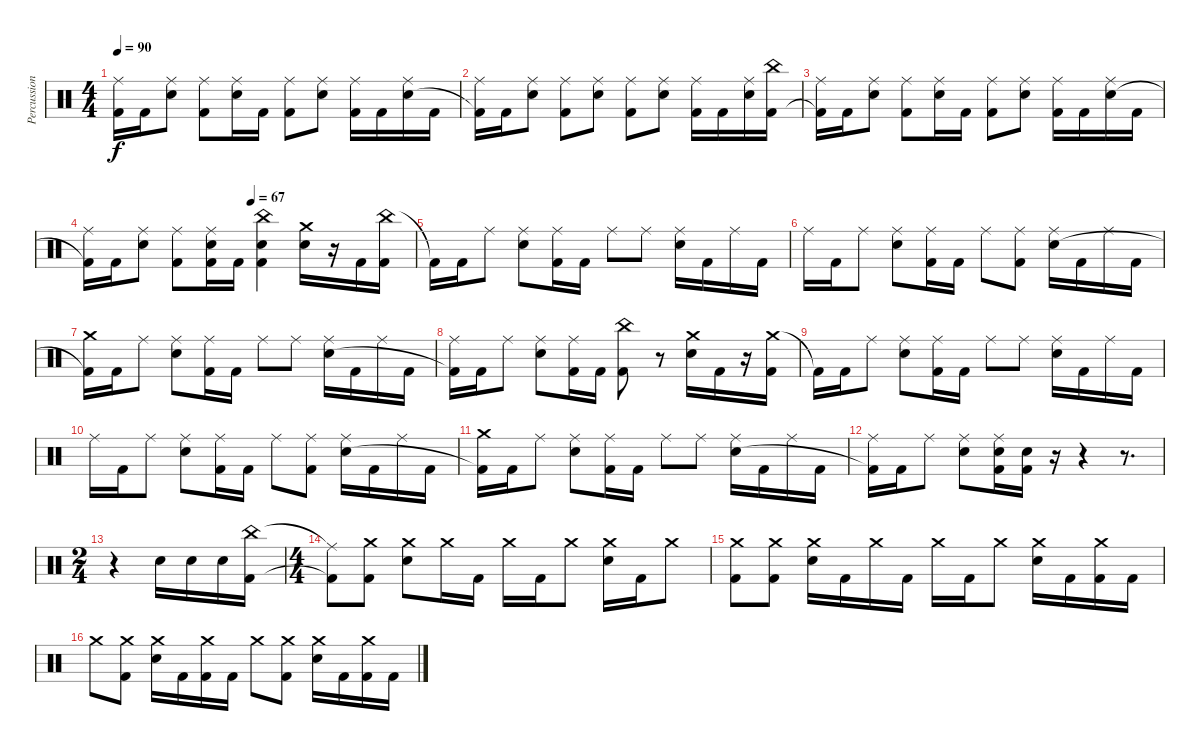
\track ("Percussion" "Percussion") {instrument percussion}
\staff {score}
\articulation defaults
\ts (4 4)
\tempo 90
\clef neutral
\ks c
("Ride (middle)" "Kick (hit) 2"{t}).16{dy f} "Kick (hit) 2".16 ("Ride (middle)" "Electric Snare (hit)").8 ("Ride (middle)" "Kick (hit) 2").8 ("Ride (middle)" "Electric Snare (hit)").16 "Kick (hit) 2".16 ("Ride (middle)" "Kick (hit) 2").8 ("Ride (middle)" "Electric Snare (hit)").8 ("Ride (middle)" "Kick (hit) 2").16 "Kick (hit) 2".16 ("Ride (middle)" "Electric Snare (hit)").16 "Kick (hit) 2".16 |
("Ride (middle)" "Kick (hit) 2"{t}).16 "Kick (hit) 2".16 ("Ride (middle)" "Electric Snare (hit)").8 ("Ride (middle)" "Kick (hit) 2").8 ("Ride (middle)" "Electric Snare (hit)").8 ("Ride (middle)" "Kick (hit) 2").8 ("Ride (middle)" "Electric Snare (hit)").8 ("Ride (middle)" "Kick (hit) 2").16 "Kick (hit) 2".16 ("Ride (middle)" "Electric Snare (hit)").16 ("China (hit)" "Kick (hit) 2").16 |
("Ride (middle)" "Kick (hit) 2"{t}).16 "Kick (hit) 2".16 ("Ride (middle)" "Electric Snare (hit)").8 ("Ride (middle)" "Kick (hit) 2").8 ("Ride (middle)" "Electric Snare (hit)").16 "Kick (hit) 2".16 ("Ride (middle)" "Kick (hit) 2").8 ("Ride (middle)" "Electric Snare (hit)").8 ("Ride (middle)" "Kick (hit) 2").16 "Kick (hit) 2".16 ("Ride (middle)" "Electric Snare (hit)").16 "Kick (hit) 2".16 |
\tempo (67 0.5)
("Ride (middle)" "Kick (hit) 2"{t}).16 "Kick (hit) 2".16 ("Ride (middle)" "Electric Snare (hit)").8 ("Ride (middle)" "Kick (hit) 2").8 ("Ride (middle)" "Electric Snare (hit)" "Kick (hit) 2").16 "Kick (hit) 2".16 ("China (hit)" "Electric Snare (hit)" "Kick (hit) 2").4 ("Crash medium (hit)" "Electric Snare (hit)").16 r.16 "Kick (hit) 2".16 ("China (hit)" "Kick (hit) 2").16 |
"Kick (hit) 2"{t}.16 "Kick (hit) 2".16 "Ride (middle)".8 ("Ride (middle)" "Electric Snare (hit)").8 ("Ride (middle)" "Kick (hit) 2").16 "Kick (hit) 2".16 "Ride (middle)".8 "Ride (middle)".8 ("Ride (middle)" "Electric Snare (hit)").16 "Kick (hit) 2".16 "Ride (middle)".16 "Kick (hit) 2".16 |
"Ride (middle)".16 "Kick (hit) 2".16 "Ride (middle)".8 ("Ride (middle)" "Electric Snare (hit)").8 ("Ride (middle)" "Kick (hit) 2").16 "Kick (hit) 2".16 "Ride (middle)".8 ("Ride (middle)" "Kick (hit) 2").8 ("Ride (middle)" "Electric Snare (hit)").16 "Kick (hit) 2".16 "Ride (middle)".16 "Kick (hit) 2".16 |
("Crash medium (hit)" "Kick (hit) 2"{t}).16 "Kick (hit) 2".16 "Ride (middle)".8 ("Ride (middle)" "Electric Snare (hit)").8 ("Ride (middle)" "Kick (hit) 2").16 "Kick (hit) 2".16 "Ride (middle)".8 "Ride (middle)".8 ("Ride (middle)" "Electric Snare (hit)").16 "Kick (hit) 2".16 "Ride (middle)".16 "Kick (hit) 2".16 |
("Ride (middle)" "Kick (hit) 2"{t}).16 "Kick (hit) 2".16 "Ride (middle)".8 ("Ride (middle)" "Electric Snare (hit)").8 ("Ride (middle)" "Kick (hit) 2").16 "Kick (hit) 2".16 ("China (hit)" "Kick (hit) 2").8 r.8 ("Crash medium (hit)" "Electric Snare (hit)").16 "Kick (hit) 2".16 r.16 ("Crash medium (hit)" "Kick (hit) 2").16 |
"Kick (hit) 2"{t}.16 "Kick (hit) 2".16 "Ride (middle)".8 ("Ride (middle)" "Electric Snare (hit)").8 ("Ride (middle)" "Kick (hit) 2").16 "Kick (hit) 2".16 "Ride (middle)".8 "Ride (middle)".8 ("Ride (middle)" "Electric Snare (hit)").16 "Kick (hit) 2".16 "Ride (middle)".16 "Kick (hit) 2".16 |
"Ride (middle)".16 "Kick (hit) 2".16 "Ride (middle)".8 ("Ride (middle)" "Electric Snare (hit)").8 ("Ride (middle)" "Kick (hit) 2").16 "Kick (hit) 2".16 "Ride (middle)".8 ("Ride (middle)" "Kick (hit) 2").8 ("Ride (middle)" "Electric Snare (hit)").16 "Kick (hit) 2".16 "Ride (middle)".16 "Kick (hit) 2".16 |
("Crash medium (hit)" "Kick (hit) 2"{t}).16 "Kick (hit) 2".16 "Ride (middle)".8 ("Ride (middle)" "Electric Snare (hit)").8 ("Ride (middle)" "Kick (hit) 2").16 "Kick (hit) 2".16 "Ride (middle)".8 "Ride (middle)".8 ("Ride (middle)" "Electric Snare (hit)").16 "Kick (hit) 2".16 "Ride (middle)".16 "Kick (hit) 2".16 |
("Ride (middle)" "Kick (hit) 2"{t}).16 "Kick (hit) 2".16 "Ride (middle)".8 ("Ride (middle)" "Electric Snare (hit)").8 ("Ride (middle)" "Electric Snare (hit)" "Kick (hit) 2").16 ("Electric Snare (hit)" "Kick (hit) 2").16 r.16 r.4 r.8{d} |
\ts (2 4)
r.4 "Electric Snare (hit)".16 "Electric Snare (hit)".16 "Electric Snare (hit)".16 ("China (hit)" "Kick (hit) 2").16 |
\ts (4 4)
("Ride (middle)"{t} "Kick (hit) 2"{t}).8 ("Crash medium (hit)" "Kick (hit) 2").8 ("Crash medium (hit)" "Electric Snare (hit)").8 "Crash medium (hit)".16 "Kick (hit) 2".16 "Crash medium (hit)".16 "Kick (hit) 2".16 "Crash medium (hit)".8 ("Crash medium (hit)" "Electric Snare (hit)").16 "Kick (hit) 2".16 "Crash medium (hit)".8 |
("Crash medium (hit)" "Kick (hit) 2").8 ("Crash medium (hit)" "Kick (hit) 2").8 ("Crash medium (hit)" "Electric Snare (hit)").16 "Kick (hit) 2".16 "Crash medium (hit)".16 "Kick (hit) 2".16 "Crash medium (hit)".16 "Kick (hit) 2".16 "Crash medium (hit)".8 ("Crash medium (hit)" "Electric Snare (hit)").16 "Kick (hit) 2".16 ("Crash medium (hit)" "Kick (hit) 2").16 "Kick (hit) 2".16 |
"Crash medium (hit)".8 ("Crash medium (hit)" "Kick (hit) 2").8 ("Crash medium (hit)" "Electric Snare (hit)").16 "Kick (hit) 2".16 ("Crash medium (hit)" "Kick (hit) 2").16 "Kick (hit) 2".16 "Crash medium (hit)".8 ("Crash medium (hit)" "Kick (hit) 2").8 ("Crash medium (hit)" "Electric Snare (hit)").16 "Kick (hit) 2".16 ("Crash medium (hit)" "Kick (hit) 2").16 "Kick (hit) 2".16
